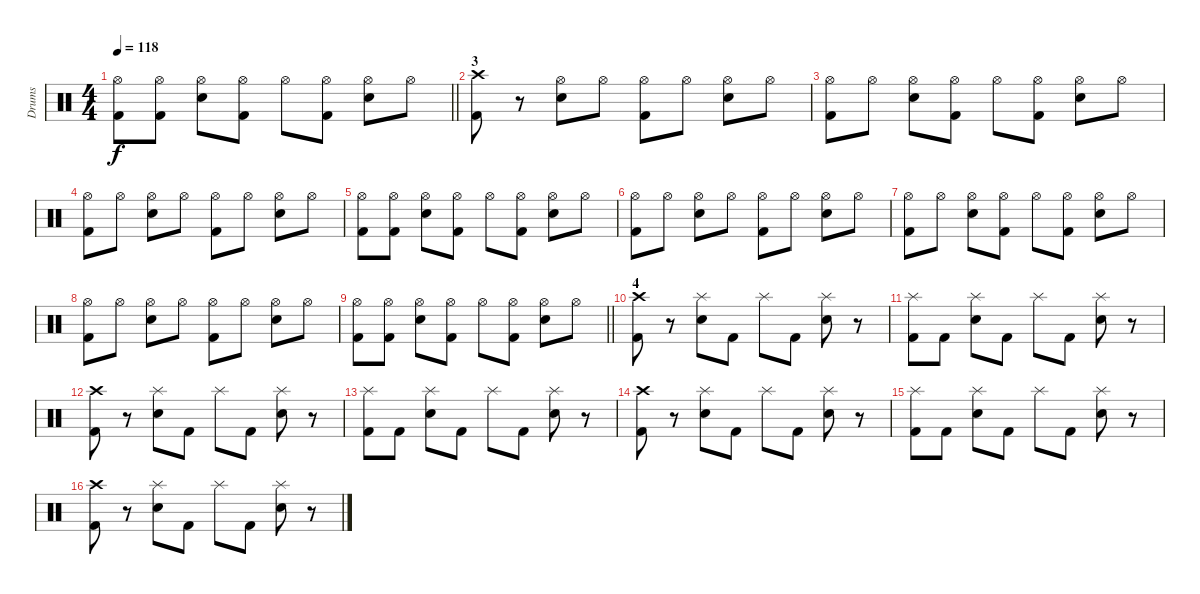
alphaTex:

\track ("Drums" "Drums") {instrument percussion}
\staff {score}
\articulation defaults
\ts (4 4)
\tempo 118
\clef neutral
\barLineRight lightlight
\ks c
("Kick (hit) 2" "Hi-Hat (open)").8{dy f} ("Kick (hit) 2" "Hi-Hat (open)").8 ("Hi-Hat (open)" "Electric Snare (hit)").8 ("Kick (hit) 2" "Hi-Hat (open)").8 "Hi-Hat (open)".8 ("Kick (hit) 2" "Hi-Hat (open)").8 ("Hi-Hat (open)" "Electric Snare (hit)").8 "Hi-Hat (open)".8 |
\section ("" "3")
("Crash high (hit)" "Kick (hit) 2").8 r.8 ("Hi-Hat (open)" "Electric Snare (hit)").8 "Hi-Hat (open)".8 ("Kick (hit) 2" "Hi-Hat (open)").8 "Hi-Hat (open)".8 ("Hi-Hat (open)" "Electric Snare (hit)").8 "Hi-Hat (open)".8 |
("Kick (hit) 2" "Hi-Hat (open)").8 "Hi-Hat (open)".8 ("Hi-Hat (open)" "Electric Snare (hit)").8 ("Kick (hit) 2" "Hi-Hat (open)").8 "Hi-Hat (open)".8 ("Kick (hit) 2" "Hi-Hat (open)").8 ("Hi-Hat (open)" "Electric Snare (hit)").8 "Hi-Hat (open)".8 |
("Kick (hit) 2" "Hi-Hat (open)").8 "Hi-Hat (open)".8 ("Hi-Hat (open)" "Electric Snare (hit)").8 "Hi-Hat (open)".8 ("Kick (hit) 2" "Hi-Hat (open)").8 "Hi-Hat (open)".8 ("Hi-Hat (open)" "Electric Snare (hit)").8 "Hi-Hat (open)".8 |
("Kick (hit) 2" "Hi-Hat (open)").8 ("Kick (hit) 2" "Hi-Hat (open)").8 ("Hi-Hat (open)" "Electric Snare (hit)").8 ("Kick (hit) 2" "Hi-Hat (open)").8 "Hi-Hat (open)".8 ("Kick (hit) 2" "Hi-Hat (open)").8 ("Hi-Hat (open)" "Electric Snare (hit)").8 "Hi-Hat (open)".8 |
("Kick (hit) 2" "Hi-Hat (open)").8 "Hi-Hat (open)".8 ("Hi-Hat (open)" "Electric Snare (hit)").8 "Hi-Hat (open)".8 ("Kick (hit) 2" "Hi-Hat (open)").8 "Hi-Hat (open)".8 ("Hi-Hat (open)" "Electric Snare (hit)").8 "Hi-Hat (open)".8 |
("Kick (hit) 2" "Hi-Hat (open)").8 "Hi-Hat (open)".8 ("Hi-Hat (open)" "Electric Snare (hit)").8 ("Kick (hit) 2" "Hi-Hat (open)").8 "Hi-Hat (open)".8 ("Kick (hit) 2" "Hi-Hat (open)").8 ("Hi-Hat (open)" "Electric Snare (hit)").8 "Hi-Hat (open)".8 |
("Kick (hit) 2" "Hi-Hat (open)").8 "Hi-Hat (open)".8 ("Hi-Hat (open)" "Electric Snare (hit)").8 "Hi-Hat (open)".8 ("Kick (hit) 2" "Hi-Hat (open)").8 "Hi-Hat (open)".8 ("Hi-Hat (open)" "Electric Snare (hit)").8 "Hi-Hat (open)".8 |
\barLineRight lightlight
("Kick (hit) 2" "Hi-Hat (open)").8 ("Kick (hit) 2" "Hi-Hat (open)").8 ("Hi-Hat (open)" "Electric Snare (hit)").8 ("Kick (hit) 2" "Hi-Hat (open)").8 "Hi-Hat (open)".8 ("Kick (hit) 2" "Hi-Hat (open)").8 ("Hi-Hat (open)" "Electric Snare (hit)").8 "Hi-Hat (open)".8 |
\section ("" "4")
("Crash high (hit)" "Kick (hit) 2").8 r.8 ("Splash (hit)" "Electric Snare (hit)").8 "Kick (hit) 2".8 "Splash (hit)".8 "Kick (hit) 2".8 ("Splash (hit)" "Electric Snare (hit)").8 r.8 |
("Splash (hit)" "Kick (hit) 2").8 "Kick (hit) 2".8 ("Splash (hit)" "Electric Snare (hit)").8 "Kick (hit) 2".8 "Splash (hit)".8 "Kick (hit) 2".8 ("Splash (hit)" "Electric Snare (hit)").8 r.8 |
("Crash high (hit)" "Kick (hit) 2").8 r.8 ("Splash (hit)" "Electric Snare (hit)").8 "Kick (hit) 2".8 "Splash (hit)".8 "Kick (hit) 2".8 ("Splash (hit)" "Electric Snare (hit)").8 r.8 |
("Splash (hit)" "Kick (hit) 2").8 "Kick (hit) 2".8 ("Splash (hit)" "Electric Snare (hit)").8 "Kick (hit) 2".8 "Splash (hit)".8 "Kick (hit) 2".8 ("Splash (hit)" "Electric Snare (hit)").8 r.8 |
("Crash high (hit)" "Kick (hit) 2").8 r.8 ("Splash (hit)" "Electric Snare (hit)").8 "Kick (hit) 2".8 "Splash (hit)".8 "Kick (hit) 2".8 ("Splash (hit)" "Electric Snare (hit)").8 r.8 |
("Splash (hit)" "Kick (hit) 2").8 "Kick (hit) 2".8 ("Splash (hit)" "Electric Snare (hit)").8 "Kick (hit) 2".8 "Splash (hit)".8 "Kick (hit) 2".8 ("Splash (hit)" "Electric Snare (hit)").8 r.8 |
("Crash high (hit)" "Kick (hit) 2").8 r.8 ("Splash (hit)" "Electric Snare (hit)").8 "Kick (hit) 2".8 "Splash (hit)".8 "Kick (hit) 2".8 ("Splash (hit)" "Electric Snare (hit)").8 r.8
